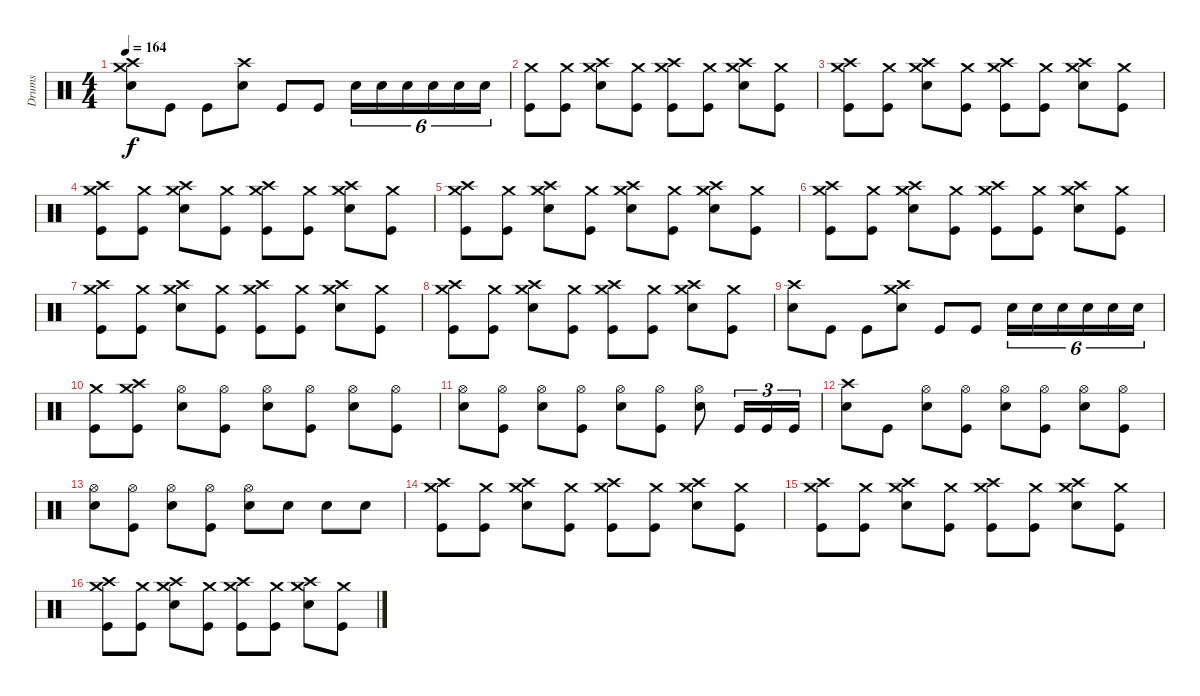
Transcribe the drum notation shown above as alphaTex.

\track ("Drums" "Drums") {instrument percussion}
\staff {score}
\articulation defaults
\ts (4 4)
\tempo 164
\clef neutral
\ks c
("Snare (hit) 2" "Crash medium (hit)" "Crash high (hit)").8{dy f} "Kick (hit)".8 "Kick (hit)".8 ("Snare (hit) 2" "Crash high (hit)").8 "Kick (hit)".8 "Kick (hit)".8 "Snare (hit) 2".16{tu (6 4)} "Snare (hit) 2".16{tu (6 4)} "Snare (hit) 2".16{tu (6 4)} "Snare (hit) 2".16{tu (6 4)} "Snare (hit) 2".16{tu (6 4)} "Snare (hit) 2".16{tu (6 4)} |
("Crash medium (hit)" "Kick (hit)").8 ("Crash medium (hit)" "Kick (hit)").8 ("Snare (hit) 2" "Crash medium (hit)" "Crash high (hit)").8 ("Crash medium (hit)" "Kick (hit)").8 ("Crash medium (hit)" "Kick (hit)" "Crash high (hit)").8 ("Crash medium (hit)" "Kick (hit)").8 ("Snare (hit) 2" "Crash medium (hit)" "Crash high (hit)").8 ("Crash medium (hit)" "Kick (hit)").8 |
("Crash medium (hit)" "Kick (hit)" "Crash high (hit)").8 ("Crash medium (hit)" "Kick (hit)").8 ("Snare (hit) 2" "Crash medium (hit)" "Crash high (hit)").8 ("Crash medium (hit)" "Kick (hit)").8 ("Crash medium (hit)" "Kick (hit)" "Crash high (hit)").8 ("Crash medium (hit)" "Kick (hit)").8 ("Snare (hit) 2" "Crash medium (hit)" "Crash high (hit)").8 ("Crash medium (hit)" "Kick (hit)").8 |
("Crash medium (hit)" "Kick (hit)" "Crash high (hit)").8 ("Crash medium (hit)" "Kick (hit)").8 ("Snare (hit) 2" "Crash medium (hit)" "Crash high (hit)").8 ("Crash medium (hit)" "Kick (hit)").8 ("Crash medium (hit)" "Kick (hit)" "Crash high (hit)").8 ("Crash medium (hit)" "Kick (hit)").8 ("Snare (hit) 2" "Crash medium (hit)" "Crash high (hit)").8 ("Crash medium (hit)" "Kick (hit)").8 |
("Crash medium (hit)" "Kick (hit)" "Crash high (hit)").8 ("Crash medium (hit)" "Kick (hit)").8 ("Snare (hit) 2" "Crash medium (hit)" "Crash high (hit)").8 ("Crash medium (hit)" "Kick (hit)").8 ("Snare (hit) 2" "Crash medium (hit)" "Crash high (hit)").8 ("Crash medium (hit)" "Kick (hit)").8 ("Snare (hit) 2" "Crash medium (hit)" "Crash high (hit)").8 ("Crash medium (hit)" "Kick (hit)").8 |
("Crash medium (hit)" "Kick (hit)" "Crash high (hit)").8 ("Crash medium (hit)" "Kick (hit)").8 ("Snare (hit) 2" "Crash medium (hit)" "Crash high (hit)").8 ("Crash medium (hit)" "Kick (hit)").8 ("Crash medium (hit)" "Kick (hit)" "Crash high (hit)").8 ("Crash medium (hit)" "Kick (hit)").8 ("Snare (hit) 2" "Crash medium (hit)" "Crash high (hit)").8 ("Crash medium (hit)" "Kick (hit)").8 |
("Crash medium (hit)" "Kick (hit)" "Crash high (hit)").8 ("Crash medium (hit)" "Kick (hit)").8 ("Snare (hit) 2" "Crash medium (hit)" "Crash high (hit)").8 ("Crash medium (hit)" "Kick (hit)").8 ("Crash medium (hit)" "Kick (hit)" "Crash high (hit)").8 ("Crash medium (hit)" "Kick (hit)").8 ("Snare (hit) 2" "Crash medium (hit)" "Crash high (hit)").8 ("Crash medium (hit)" "Kick (hit)").8 |
("Crash medium (hit)" "Kick (hit)" "Crash high (hit)").8 ("Crash medium (hit)" "Kick (hit)").8 ("Snare (hit) 2" "Crash medium (hit)" "Crash high (hit)").8 ("Crash medium (hit)" "Kick (hit)").8 ("Crash medium (hit)" "Kick (hit)" "Crash high (hit)").8 ("Crash medium (hit)" "Kick (hit)").8 ("Snare (hit) 2" "Crash medium (hit)" "Crash high (hit)").8 ("Crash medium (hit)" "Kick (hit)").8 |
("Snare (hit) 2" "Crash high (hit)").8 "Kick (hit)".8 "Kick (hit)".8 ("Snare (hit) 2" "Crash high (hit)" "Crash medium (hit)").8 "Kick (hit)".8 "Kick (hit)".8 "Snare (hit) 2".16{tu (6 4)} "Snare (hit) 2".16{tu (6 4)} "Snare (hit) 2".16{tu (6 4)} "Snare (hit) 2".16{tu (6 4)} "Snare (hit) 2".16{tu (6 4)} "Snare (hit) 2".16{tu (6 4)} |
("Crash medium (hit)" "Kick (hit)").8 ("Crash medium (hit)" "Kick (hit)" "Crash high (hit)").8 ("Snare (hit) 2" "Hi-Hat (open)").8 ("Hi-Hat (open)" "Kick (hit)").8 ("Snare (hit) 2" "Hi-Hat (open)").8 ("Hi-Hat (open)" "Kick (hit)").8 ("Snare (hit) 2" "Hi-Hat (open)").8 ("Hi-Hat (open)" "Kick (hit)").8 |
("Snare (hit) 2" "Hi-Hat (open)").8 ("Hi-Hat (open)" "Kick (hit)").8 ("Snare (hit) 2" "Hi-Hat (open)").8 ("Hi-Hat (open)" "Kick (hit)").8 ("Snare (hit) 2" "Hi-Hat (open)").8 ("Hi-Hat (open)" "Kick (hit)").8 ("Snare (hit) 2" "Hi-Hat (open)").8 "Kick (hit)".16{tu (3 2)} "Kick (hit)".16{tu (3 2)} "Kick (hit)".16{tu (3 2)} |
("Snare (hit) 2" "Crash high (hit)").8 "Kick (hit)".8 ("Snare (hit) 2" "Hi-Hat (open)").8 ("Hi-Hat (open)" "Kick (hit)").8 ("Snare (hit) 2" "Hi-Hat (open)").8 ("Hi-Hat (open)" "Kick (hit)").8 ("Snare (hit) 2" "Hi-Hat (open)").8 ("Hi-Hat (open)" "Kick (hit)").8 |
("Snare (hit) 2" "Hi-Hat (open)").8 ("Hi-Hat (open)" "Kick (hit)").8 ("Snare (hit) 2" "Hi-Hat (open)").8 ("Hi-Hat (open)" "Kick (hit)").8 ("Snare (hit) 2" "Hi-Hat (open)").8 "Snare (hit) 2".8 "Snare (hit) 2".8 "Snare (hit) 2".8 |
("Crash medium (hit)" "Kick (hit)" "Crash high (hit)").8 ("Crash medium (hit)" "Kick (hit)").8 ("Snare (hit) 2" "Crash medium (hit)" "Crash high (hit)").8 ("Crash medium (hit)" "Kick (hit)").8 ("Crash medium (hit)" "Kick (hit)" "Crash high (hit)").8 ("Crash medium (hit)" "Kick (hit)").8 ("Snare (hit) 2" "Crash medium (hit)" "Crash high (hit)").8 ("Crash medium (hit)" "Kick (hit)").8 |
("Crash medium (hit)" "Kick (hit)" "Crash high (hit)").8 ("Crash medium (hit)" "Kick (hit)").8 ("Snare (hit) 2" "Crash medium (hit)" "Crash high (hit)").8 ("Crash medium (hit)" "Kick (hit)").8 ("Crash medium (hit)" "Kick (hit)" "Crash high (hit)").8 ("Crash medium (hit)" "Kick (hit)").8 ("Snare (hit) 2" "Crash medium (hit)" "Crash high (hit)").8 ("Crash medium (hit)" "Kick (hit)").8 |
("Crash medium (hit)" "Kick (hit)" "Crash high (hit)").8 ("Crash medium (hit)" "Kick (hit)").8 ("Snare (hit) 2" "Crash medium (hit)" "Crash high (hit)").8 ("Crash medium (hit)" "Kick (hit)").8 ("Crash medium (hit)" "Kick (hit)" "Crash high (hit)").8 ("Crash medium (hit)" "Kick (hit)").8 ("Snare (hit) 2" "Crash medium (hit)" "Crash high (hit)").8 ("Crash medium (hit)" "Kick (hit)").8
